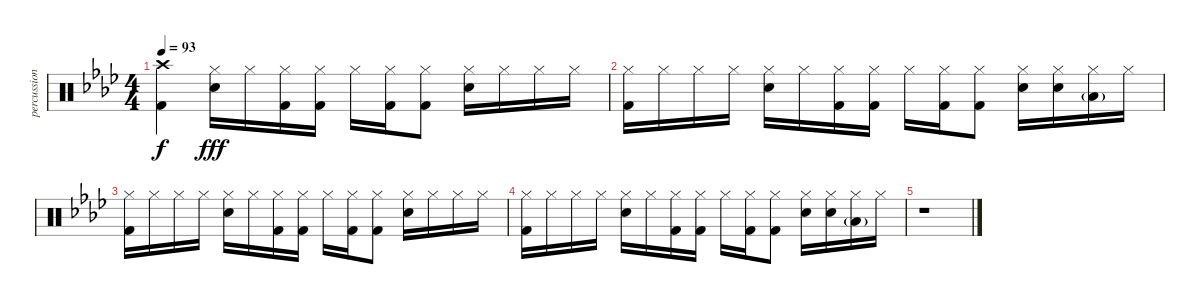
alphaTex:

\track ("percussion" "percussion") {instrument percussion}
\staff {score}
\articulation defaults
\ts (4 4)
\tempo 93
\clef neutral
\ks fminor
("Crash high (hit)" "Kick (hit) 2").4{dy f} ("Snare (hit) 2" "Hi-Hat (closed)").16{dy fff} "Hi-Hat (closed)".16 ("Hi-Hat (closed)" "Kick (hit) 2").16 ("Hi-Hat (closed)" "Kick (hit) 2").16 "Hi-Hat (closed)".16 ("Hi-Hat (closed)" "Kick (hit) 2").16 ("Hi-Hat (closed)" "Kick (hit) 2").8 ("Snare (hit) 2" "Hi-Hat (closed)").16 "Hi-Hat (closed)".16 "Hi-Hat (closed)".16 "Hi-Hat (closed)".16 |
("Hi-Hat (closed)" "Kick (hit) 2").16 "Hi-Hat (closed)".16 "Hi-Hat (closed)".16 "Hi-Hat (closed)".16 ("Snare (hit) 2" "Hi-Hat (closed)").16 "Hi-Hat (closed)".16 ("Hi-Hat (closed)" "Kick (hit) 2").16 ("Hi-Hat (closed)" "Kick (hit) 2").16 "Hi-Hat (closed)".16 ("Hi-Hat (closed)" "Kick (hit) 2").16 ("Hi-Hat (closed)" "Kick (hit) 2").8 ("Snare (hit) 2" "Hi-Hat (closed)").16 ("Snare (hit) 2" "Hi-Hat (closed)").16 ("Low Floor Tom (hit)"{g} "Hi-Hat (closed)").16 "Hi-Hat (closed)".16 |
("Hi-Hat (closed)" "Kick (hit) 2").16 "Hi-Hat (closed)".16 "Hi-Hat (closed)".16 "Hi-Hat (closed)".16 ("Snare (hit) 2" "Hi-Hat (closed)").16 "Hi-Hat (closed)".16 ("Hi-Hat (closed)" "Kick (hit) 2").16 ("Hi-Hat (closed)" "Kick (hit) 2").16 "Hi-Hat (closed)".16 ("Hi-Hat (closed)" "Kick (hit) 2").16 ("Hi-Hat (closed)" "Kick (hit) 2").8 ("Snare (hit) 2" "Hi-Hat (closed)").16 "Hi-Hat (closed)".16 "Hi-Hat (closed)".16 "Hi-Hat (closed)".16 |
("Hi-Hat (closed)" "Kick (hit) 2").16 "Hi-Hat (closed)".16 "Hi-Hat (closed)".16 "Hi-Hat (closed)".16 ("Snare (hit) 2" "Hi-Hat (closed)").16 "Hi-Hat (closed)".16 ("Hi-Hat (closed)" "Kick (hit) 2").16 ("Hi-Hat (closed)" "Kick (hit) 2").16 "Hi-Hat (closed)".16 ("Hi-Hat (closed)" "Kick (hit) 2").16 ("Hi-Hat (closed)" "Kick (hit) 2").8 ("Snare (hit) 2" "Hi-Hat (closed)").16 ("Snare (hit) 2" "Hi-Hat (closed)").16 ("Low Floor Tom (hit)"{g} "Hi-Hat (closed)").16 "Hi-Hat (closed)".16 |
r.1
